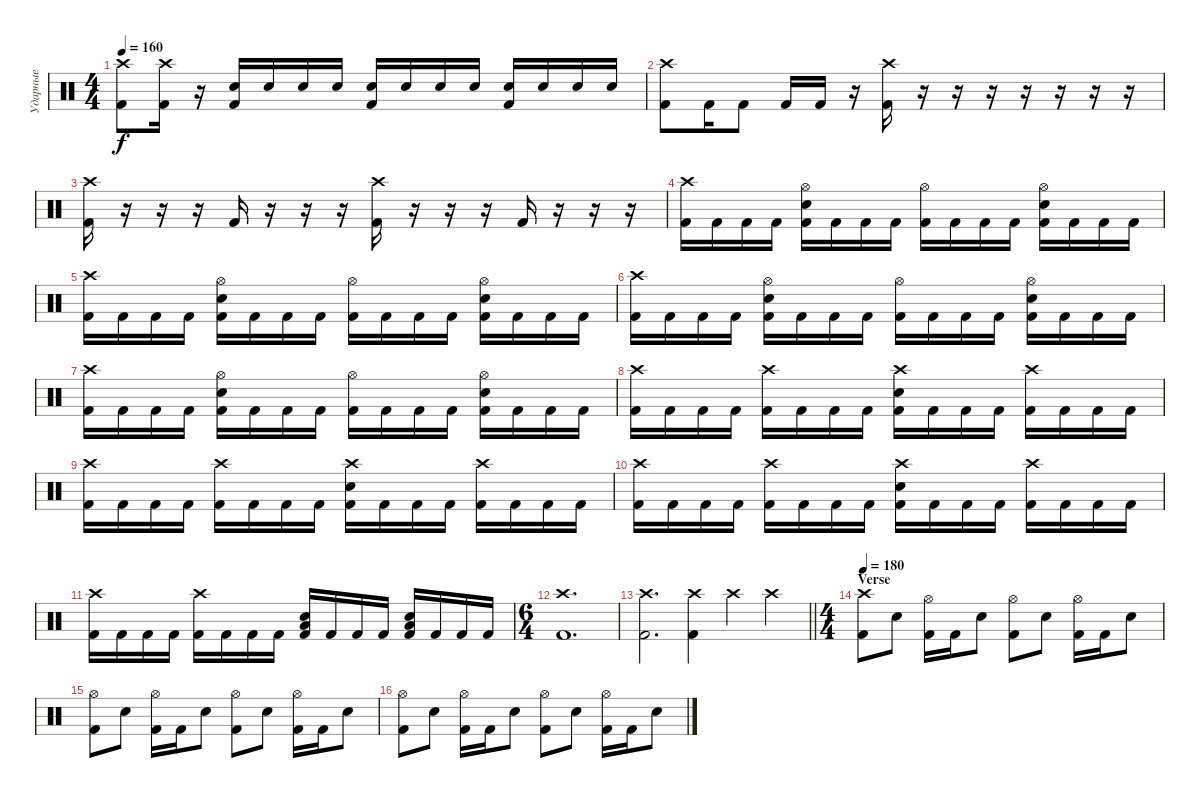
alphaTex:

\track ("Ударные" "Ударные") {instrument percussion}
\staff {score}
\articulation defaults
\ts (4 4)
\tempo 160
\clef neutral
\ks c
("Crash high (hit)" "Kick (hit) 2").8{dy f} ("Crash high (hit)" "Kick (hit) 2").16 r.16 ("Electric Snare (hit)" "Kick (hit) 2").16 "Electric Snare (hit)".16 "Electric Snare (hit)".16 "Electric Snare (hit)".16 ("Electric Snare (hit)" "Kick (hit) 2").16 "Electric Snare (hit)".16 "Electric Snare (hit)".16 "Electric Snare (hit)".16 ("Electric Snare (hit)" "Kick (hit) 2").16 "Electric Snare (hit)".16 "Electric Snare (hit)".16 "Electric Snare (hit)".16 |
("Crash high (hit)" "Kick (hit) 2").8 "Kick (hit) 2".16 "Kick (hit) 2".8 "Kick (hit) 2".16 "Kick (hit) 2".16 r.16 ("Crash high (hit)" "Kick (hit) 2").16 r.16 r.16 r.16 r.16 r.16 r.16 r.16 |
("Crash high (hit)" "Kick (hit) 2").16 r.16 r.16 r.16 "Kick (hit) 2".16 r.16 r.16 r.16 ("Crash high (hit)" "Kick (hit) 2").16 r.16 r.16 r.16 "Kick (hit) 2".16 r.16 r.16 r.16 |
("Crash high (hit)" "Kick (hit) 2").16 "Kick (hit) 2".16 "Kick (hit) 2".16 "Kick (hit) 2".16 ("Hi-Hat (open)" "Electric Snare (hit)" "Kick (hit) 2").16 "Kick (hit) 2".16 "Kick (hit) 2".16 "Kick (hit) 2".16 ("Hi-Hat (open)" "Kick (hit) 2").16 "Kick (hit) 2".16 "Kick (hit) 2".16 "Kick (hit) 2".16 ("Hi-Hat (open)" "Electric Snare (hit)" "Kick (hit) 2").16 "Kick (hit) 2".16 "Kick (hit) 2".16 "Kick (hit) 2".16 |
("Crash high (hit)" "Kick (hit) 2").16 "Kick (hit) 2".16 "Kick (hit) 2".16 "Kick (hit) 2".16 ("Hi-Hat (open)" "Electric Snare (hit)" "Kick (hit) 2").16 "Kick (hit) 2".16 "Kick (hit) 2".16 "Kick (hit) 2".16 ("Hi-Hat (open)" "Kick (hit) 2").16 "Kick (hit) 2".16 "Kick (hit) 2".16 "Kick (hit) 2".16 ("Hi-Hat (open)" "Electric Snare (hit)" "Kick (hit) 2").16 "Kick (hit) 2".16 "Kick (hit) 2".16 "Kick (hit) 2".16 |
("Crash high (hit)" "Kick (hit) 2").16 "Kick (hit) 2".16 "Kick (hit) 2".16 "Kick (hit) 2".16 ("Hi-Hat (open)" "Electric Snare (hit)" "Kick (hit) 2").16 "Kick (hit) 2".16 "Kick (hit) 2".16 "Kick (hit) 2".16 ("Hi-Hat (open)" "Kick (hit) 2").16 "Kick (hit) 2".16 "Kick (hit) 2".16 "Kick (hit) 2".16 ("Hi-Hat (open)" "Electric Snare (hit)" "Kick (hit) 2").16 "Kick (hit) 2".16 "Kick (hit) 2".16 "Kick (hit) 2".16 |
("Crash high (hit)" "Kick (hit) 2").16 "Kick (hit) 2".16 "Kick (hit) 2".16 "Kick (hit) 2".16 ("Hi-Hat (open)" "Electric Snare (hit)" "Kick (hit) 2").16 "Kick (hit) 2".16 "Kick (hit) 2".16 "Kick (hit) 2".16 ("Hi-Hat (open)" "Kick (hit) 2").16 "Kick (hit) 2".16 "Kick (hit) 2".16 "Kick (hit) 2".16 ("Hi-Hat (open)" "Electric Snare (hit)" "Kick (hit) 2").16 "Kick (hit) 2".16 "Kick (hit) 2".16 "Kick (hit) 2".16 |
("Crash high (hit)" "Kick (hit) 2").16 "Kick (hit) 2".16 "Kick (hit) 2".16 "Kick (hit) 2".16 ("Crash high (hit)" "Kick (hit) 2").16 "Kick (hit) 2".16 "Kick (hit) 2".16 "Kick (hit) 2".16 ("Crash high (hit)" "Electric Snare (hit)" "Kick (hit) 2").16 "Kick (hit) 2".16 "Kick (hit) 2".16 "Kick (hit) 2".16 ("Crash high (hit)" "Kick (hit) 2").16 "Kick (hit) 2".16 "Kick (hit) 2".16 "Kick (hit) 2".16 |
("Crash high (hit)" "Kick (hit) 2").16 "Kick (hit) 2".16 "Kick (hit) 2".16 "Kick (hit) 2".16 ("Crash high (hit)" "Kick (hit) 2").16 "Kick (hit) 2".16 "Kick (hit) 2".16 "Kick (hit) 2".16 ("Crash high (hit)" "Electric Snare (hit)" "Kick (hit) 2").16 "Kick (hit) 2".16 "Kick (hit) 2".16 "Kick (hit) 2".16 ("Crash high (hit)" "Kick (hit) 2").16 "Kick (hit) 2".16 "Kick (hit) 2".16 "Kick (hit) 2".16 |
("Crash high (hit)" "Kick (hit) 2").16 "Kick (hit) 2".16 "Kick (hit) 2".16 "Kick (hit) 2".16 ("Crash high (hit)" "Kick (hit) 2").16 "Kick (hit) 2".16 "Kick (hit) 2".16 "Kick (hit) 2".16 ("Crash high (hit)" "Electric Snare (hit)" "Kick (hit) 2").16 "Kick (hit) 2".16 "Kick (hit) 2".16 "Kick (hit) 2".16 ("Crash high (hit)" "Kick (hit) 2").16 "Kick (hit) 2".16 "Kick (hit) 2".16 "Kick (hit) 2".16 |
("Crash high (hit)" "Kick (hit) 2").16 "Kick (hit) 2".16 "Kick (hit) 2".16 "Kick (hit) 2".16 ("Crash high (hit)" "Kick (hit) 2").16 "Kick (hit) 2".16 "Kick (hit) 2".16 "Kick (hit) 2".16 ("Low Floor Tom (hit)" "Electric Snare (hit)" "Kick (hit) 2").16 "Kick (hit) 2".16 "Kick (hit) 2".16 "Kick (hit) 2".16 ("Low Floor Tom (hit)" "Electric Snare (hit)" "Kick (hit) 2").16 "Kick (hit) 2".16 "Kick (hit) 2".16 "Kick (hit) 2".16 |
\ts (6 4)
("Crash high (hit)" "Kick (hit) 2").1{d} |
\barLineRight lightlight
("Crash high (hit)" "Kick (hit) 2").2{d} ("Crash high (hit)" "Kick (hit) 2").4 "Crash high (hit)".4 "Crash high (hit)".4 |
\ts (4 4)
\section ("" "Verse")
\tempo 180
("Crash high (hit)" "Kick (hit) 2").8 "Electric Snare (hit)".8 ("Hi-Hat (open)" "Kick (hit) 2").16 "Kick (hit) 2".16 "Electric Snare (hit)".8 ("Hi-Hat (open)" "Kick (hit) 2").8 "Electric Snare (hit)".8 ("Hi-Hat (open)" "Kick (hit) 2").16 "Kick (hit) 2".16 "Electric Snare (hit)".8 |
("Hi-Hat (open)" "Kick (hit) 2").8 "Electric Snare (hit)".8 ("Hi-Hat (open)" "Kick (hit) 2").16 "Kick (hit) 2".16 "Electric Snare (hit)".8 ("Hi-Hat (open)" "Kick (hit) 2").8 "Electric Snare (hit)".8 ("Hi-Hat (open)" "Kick (hit) 2").16 "Kick (hit) 2".16 "Electric Snare (hit)".8 |
("Hi-Hat (open)" "Kick (hit) 2").8 "Electric Snare (hit)".8 ("Hi-Hat (open)" "Kick (hit) 2").16 "Kick (hit) 2".16 "Electric Snare (hit)".8 ("Hi-Hat (open)" "Kick (hit) 2").8 "Electric Snare (hit)".8 ("Hi-Hat (open)" "Kick (hit) 2").16 "Kick (hit) 2".16 "Electric Snare (hit)".8
